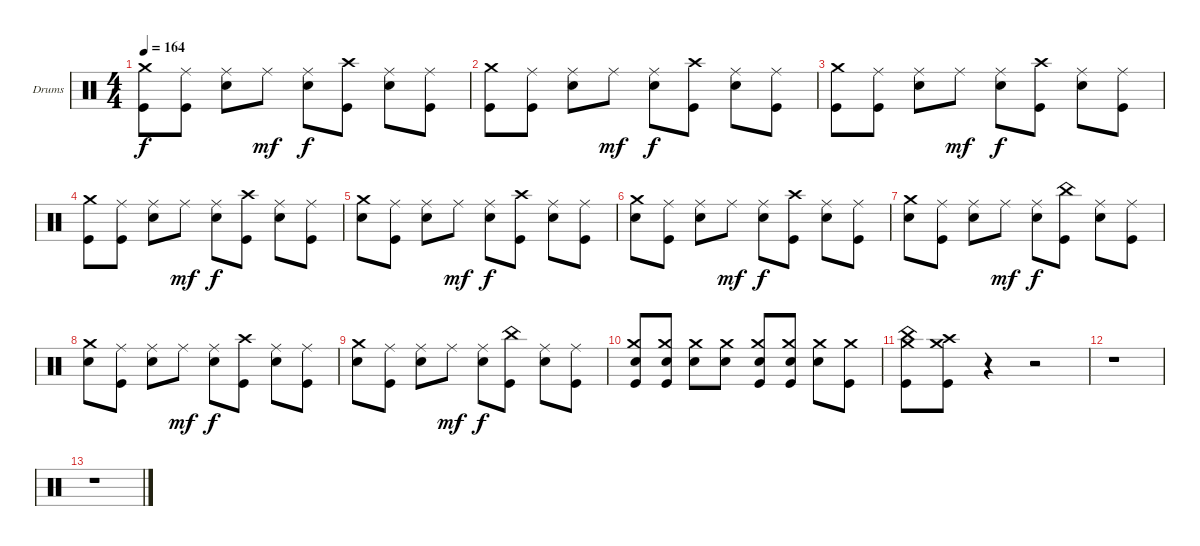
\defaultSystemsLayout 4
\bracketExtendMode nobrackets
\firstSystemTrackNameOrientation horizontal
\otherSystemsTrackNameOrientation horizontal
\track ("Dave Abbruzzese" "Drums") {solo instrument percussion}
\staff {score}
\articulation defaults
\ts (4 4)
\tempo 164
\clef neutral
\ks c
("Kick (hit)" "Crash medium (hit)").8{dy f} ("Kick (hit)" "Ride (middle)").8 ("Snare (hit) 2" "Ride (middle)").8 "Ride (middle)".8{dy mf} ("Snare (hit) 2" "Ride (middle)").8{dy f} ("Kick (hit)" "Crash high (hit)").8 ("Snare (hit) 2" "Ride (middle)").8 ("Kick (hit)" "Ride (middle)").8 |
("Kick (hit)" "Crash medium (hit)").8 ("Kick (hit)" "Ride (middle)").8 ("Snare (hit) 2" "Ride (middle)").8 "Ride (middle)".8{dy mf} ("Snare (hit) 2" "Ride (middle)").8{dy f} ("Kick (hit)" "Crash high (hit)").8 ("Snare (hit) 2" "Ride (middle)").8 ("Kick (hit)" "Ride (middle)").8 |
("Kick (hit)" "Crash medium (hit)").8 ("Kick (hit)" "Ride (middle)").8 ("Snare (hit) 2" "Ride (middle)").8 "Ride (middle)".8{dy mf} ("Snare (hit) 2" "Ride (middle)").8{dy f} ("Kick (hit)" "Crash high (hit)").8 ("Snare (hit) 2" "Ride (middle)").8 ("Kick (hit)" "Ride (middle)").8 |
("Kick (hit)" "Crash medium (hit)").8 ("Kick (hit)" "Ride (middle)").8 ("Snare (hit) 2" "Ride (middle)").8 "Ride (middle)".8{dy mf} ("Snare (hit) 2" "Ride (middle)").8{dy f} ("Kick (hit)" "Crash high (hit)").8 ("Snare (hit) 2" "Ride (middle)").8 ("Kick (hit)" "Ride (middle)").8 |
("Snare (hit) 2" "Crash medium (hit)").8 ("Kick (hit)" "Ride (middle)").8 ("Snare (hit) 2" "Ride (middle)").8 "Ride (middle)".8{dy mf} ("Snare (hit) 2" "Ride (middle)").8{dy f} ("Kick (hit)" "Crash high (hit)").8 ("Snare (hit) 2" "Ride (middle)").8 ("Kick (hit)" "Ride (middle)").8 |
("Snare (hit) 2" "Crash medium (hit)").8 ("Kick (hit)" "Ride (middle)").8 ("Snare (hit) 2" "Ride (middle)").8 "Ride (middle)".8{dy mf} ("Snare (hit) 2" "Ride (middle)").8{dy f} ("Kick (hit)" "Crash high (hit)").8 ("Snare (hit) 2" "Ride (middle)").8 ("Kick (hit)" "Ride (middle)").8 |
("Snare (hit) 2" "Crash medium (hit)").8 ("Kick (hit)" "Ride (middle)").8 ("Snare (hit) 2" "Ride (middle)").8 "Ride (middle)".8{dy mf} ("Snare (hit) 2" "Ride (middle)").8{dy f} ("Kick (hit)" "China (hit)").8 ("Snare (hit) 2" "Ride (middle)").8 ("Kick (hit)" "Ride (middle)").8 |
("Snare (hit) 2" "Crash medium (hit)").8 ("Kick (hit)" "Ride (middle)").8 ("Snare (hit) 2" "Ride (middle)").8 "Ride (middle)".8{dy mf} ("Snare (hit) 2" "Ride (middle)").8{dy f} ("Kick (hit)" "Crash high (hit)").8 ("Snare (hit) 2" "Ride (middle)").8 ("Kick (hit)" "Ride (middle)").8 |
("Snare (hit) 2" "Crash medium (hit)").8 ("Kick (hit)" "Ride (middle)").8 ("Snare (hit) 2" "Ride (middle)").8 "Ride (middle)".8{dy mf} ("Snare (hit) 2" "Ride (middle)").8{dy f} ("Kick (hit)" "China (hit)").8 ("Snare (hit) 2" "Ride (middle)").8 ("Kick (hit)" "Ride (middle)").8 |
("Snare (hit) 2" "Kick (hit)" "Crash medium (hit)").8 ("Snare (hit) 2" "Kick (hit)" "Crash medium (hit)").8 ("Snare (hit) 2" "Crash medium (hit)").8 ("Snare (hit) 2" "Crash medium (hit)").8 ("Snare (hit) 2" "Kick (hit)" "Crash medium (hit)").8 ("Snare (hit) 2" "Kick (hit)" "Crash medium (hit)").8 ("Snare (hit) 2" "Crash medium (hit)").8 ("Kick (hit)" "Crash medium (hit)").8 |
("China (hit)" "Kick (hit)" "Crash medium (hit)").8 ("Crash high (hit)" "Kick (hit)" "Crash medium (hit)").8 r.4 r.2 |
r.1 |
r.1
